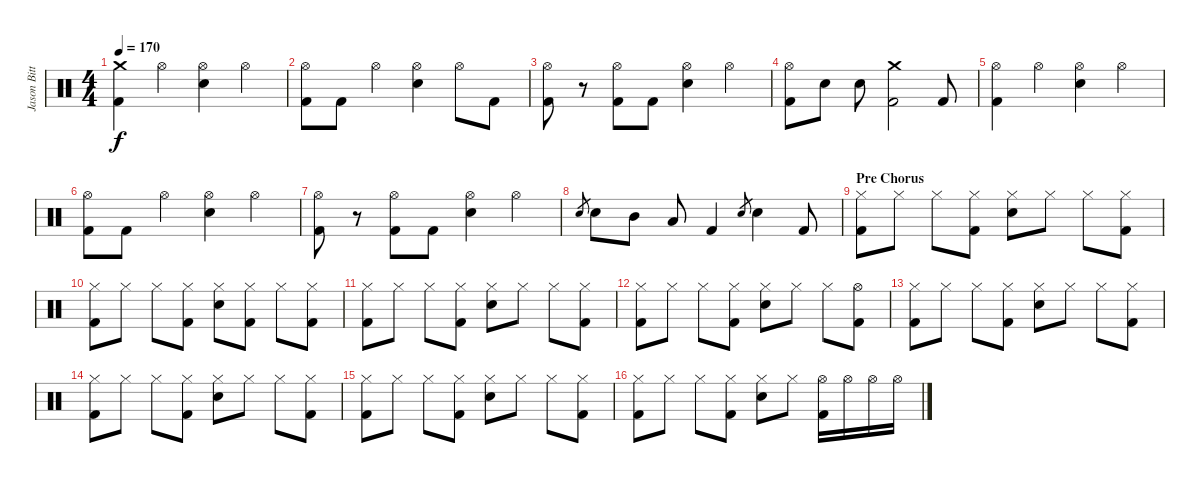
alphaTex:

\track ("Jason Bittner" "Jason Bitt") {instrument percussion}
\staff {score}
\articulation defaults
\ts (4 4)
\tempo 170
\clef neutral
\ks c
("Crash medium (hit)"{t} "Kick (hit) 2").4{dy f} "Hi-Hat (open)".4 ("Hi-Hat (open)" "Electric Snare (hit)").4 "Hi-Hat (open)".4 |
("Hi-Hat (open)" "Kick (hit) 2").8 "Kick (hit) 2".8 "Hi-Hat (open)".4 ("Hi-Hat (open)" "Electric Snare (hit)").4 "Hi-Hat (open)".8 "Kick (hit) 2".8 |
("Hi-Hat (open)" "Kick (hit) 2").8 r.8 ("Hi-Hat (open)" "Kick (hit) 2").8 "Kick (hit) 2".8 ("Hi-Hat (open)" "Electric Snare (hit)").4 "Hi-Hat (open)".4 |
("Hi-Hat (open)" "Kick (hit) 2").8 "Electric Snare (hit)".8 "Electric Snare (hit)".8 ("Crash medium (hit)" "Kick (hit) 2").2 "Kick (hit) 2".8 |
("Hi-Hat (open)" "Kick (hit) 2").4 "Hi-Hat (open)".4 ("Hi-Hat (open)" "Electric Snare (hit)").4 "Hi-Hat (open)".4 |
("Hi-Hat (open)" "Kick (hit) 2").8 "Kick (hit) 2".8 "Hi-Hat (open)".4 ("Hi-Hat (open)" "Electric Snare (hit)").4 "Hi-Hat (open)".4 |
("Hi-Hat (open)" "Kick (hit) 2").8 r.8 ("Hi-Hat (open)" "Kick (hit) 2").8 "Kick (hit) 2".8 ("Hi-Hat (open)" "Electric Snare (hit)").4 "Hi-Hat (open)".4 |
"Electric Snare (hit)".8{gr} "Electric Snare (hit)".8 "Mid Tom (hit)".8 "Low Tom (hit)".8 "Kick (hit) 2".4 "Electric Snare (hit)".8{gr} "Electric Snare (hit)".4 "Kick (hit) 2".8 |
\section ("" "Pre Chorus")
("Hi-Hat (closed)" "Kick (hit) 2").8 "Hi-Hat (closed)".8 "Hi-Hat (closed)".8 ("Hi-Hat (closed)" "Kick (hit) 2").8 ("Hi-Hat (closed)" "Electric Snare (hit)").8 "Hi-Hat (closed)".8 "Hi-Hat (closed)".8 ("Hi-Hat (closed)" "Kick (hit) 2").8 |
("Hi-Hat (closed)" "Kick (hit) 2").8 "Hi-Hat (closed)".8 "Hi-Hat (closed)".8 ("Hi-Hat (closed)" "Kick (hit) 2").8 ("Hi-Hat (closed)" "Electric Snare (hit)").8 ("Hi-Hat (closed)" "Kick (hit) 2").8 "Hi-Hat (closed)".8 ("Hi-Hat (closed)" "Kick (hit) 2").8 |
("Hi-Hat (closed)" "Kick (hit) 2").8 "Hi-Hat (closed)".8 "Hi-Hat (closed)".8 ("Hi-Hat (closed)" "Kick (hit) 2").8 ("Hi-Hat (closed)" "Electric Snare (hit)").8 "Hi-Hat (closed)".8 "Hi-Hat (closed)".8 ("Hi-Hat (closed)" "Kick (hit) 2").8 |
("Hi-Hat (closed)" "Kick (hit) 2").8 "Hi-Hat (closed)".8 "Hi-Hat (closed)".8 ("Hi-Hat (closed)" "Kick (hit) 2").8 ("Hi-Hat (closed)" "Electric Snare (hit)").8 "Hi-Hat (closed)".8 "Hi-Hat (closed)".8 ("Hi-Hat (open)" "Kick (hit) 2").8 |
("Hi-Hat (closed)" "Kick (hit) 2").8 "Hi-Hat (closed)".8 "Hi-Hat (closed)".8 ("Hi-Hat (closed)" "Kick (hit) 2").8 ("Hi-Hat (closed)" "Electric Snare (hit)").8 "Hi-Hat (closed)".8 "Hi-Hat (closed)".8 ("Hi-Hat (closed)" "Kick (hit) 2").8 |
("Hi-Hat (closed)" "Kick (hit) 2").8 "Hi-Hat (closed)".8 "Hi-Hat (closed)".8 ("Hi-Hat (closed)" "Kick (hit) 2").8 ("Hi-Hat (closed)" "Electric Snare (hit)").8 "Hi-Hat (closed)".8 "Hi-Hat (closed)".8 ("Hi-Hat (closed)" "Kick (hit) 2").8 |
("Hi-Hat (closed)" "Kick (hit) 2").8 "Hi-Hat (closed)".8 "Hi-Hat (closed)".8 ("Hi-Hat (closed)" "Kick (hit) 2").8 ("Hi-Hat (closed)" "Electric Snare (hit)").8 "Hi-Hat (closed)".8 "Hi-Hat (closed)".8 ("Hi-Hat (closed)" "Kick (hit) 2").8 |
("Hi-Hat (closed)" "Kick (hit) 2").8 "Hi-Hat (closed)".8 "Hi-Hat (closed)".8 ("Hi-Hat (closed)" "Kick (hit) 2").8 ("Hi-Hat (closed)" "Electric Snare (hit)").8 "Hi-Hat (closed)".8 ("Hi-Hat (open)" "Kick (hit) 2").16 "Hi-Hat (open)".16 "Hi-Hat (open)".16 "Hi-Hat (open)".16
